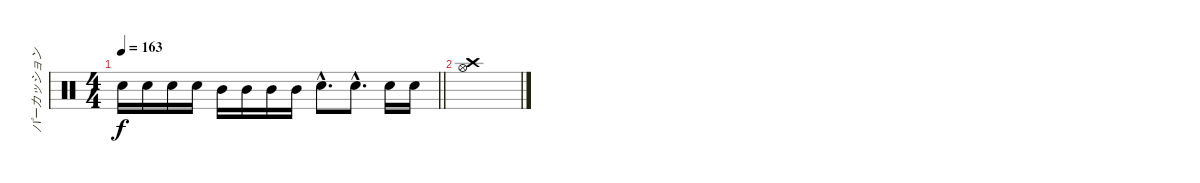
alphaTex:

\track ("パーカッション" "パーカッション") {instrument percussion}
\staff {score}
\articulation defaults
\ts (4 4)
\tempo 163
\clef neutral
\barLineRight lightlight
\ks c "Snare (hit) 2".16{dy f} "Snare (hit) 2".16 "Snare (hit) 2".16 "Snare (hit) 2".16 "Mid Tom (hit)".16 "Mid Tom (hit)".16 "Mid Tom (hit)".16 "Mid Tom (hit)".16 "Snare (hit) 2"{hac}.8{d} "Snare (hit) 2"{hac}.8{d} "Snare (hit) 2".16 "Snare (hit) 2".16
|
("Crash high (hit)" "Hi-Hat (open)").1
